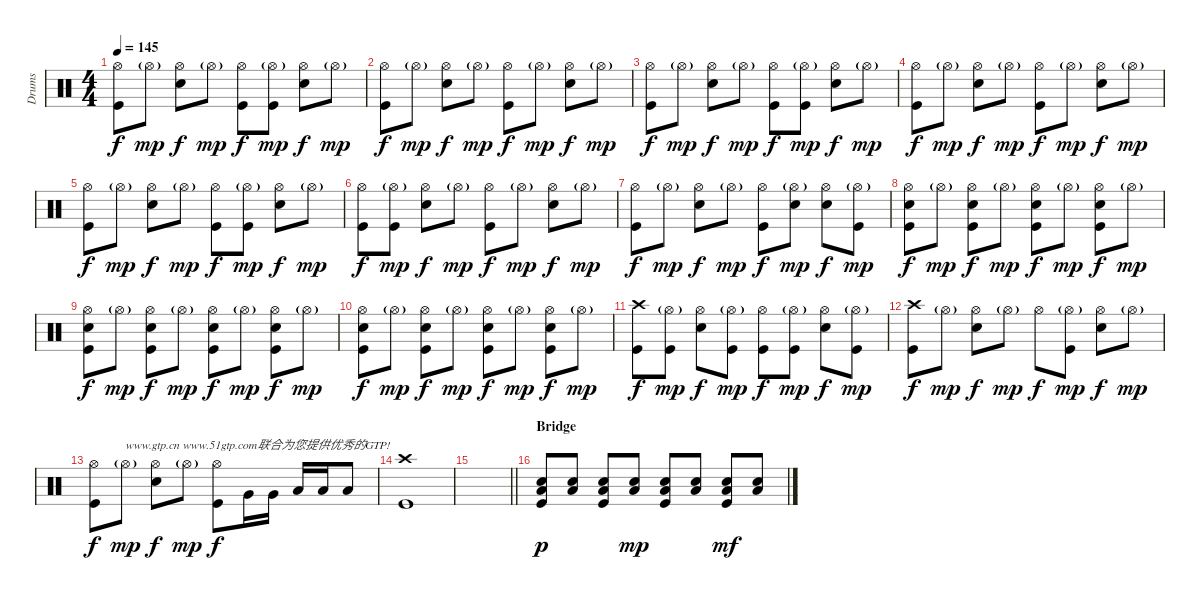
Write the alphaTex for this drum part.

\track ("Drums" "Drums") {instrument percussion}
\staff {score}
\articulation defaults
\ts (4 4)
\tempo 145
\clef neutral
\ks c
("Hi-Hat (open)" "Kick (hit)").8{dy f} "Hi-Hat (open)"{g}.8{dy mp} ("Hi-Hat (open)" "Snare (hit) 2").8{dy f} "Hi-Hat (open)"{g}.8{dy mp} ("Hi-Hat (open)" "Kick (hit)").8{dy f} ("Hi-Hat (open)"{g} "Kick (hit)").8{dy mp} ("Hi-Hat (open)" "Snare (hit) 2").8{dy f} "Hi-Hat (open)"{g}.8{dy mp} |
("Hi-Hat (open)" "Kick (hit)").8{dy f} "Hi-Hat (open)"{g}.8{dy mp} ("Hi-Hat (open)" "Snare (hit) 2").8{dy f} "Hi-Hat (open)"{g}.8{dy mp} ("Hi-Hat (open)" "Kick (hit)").8{dy f} "Hi-Hat (open)"{g}.8{dy mp} ("Hi-Hat (open)" "Snare (hit) 2").8{dy f} "Hi-Hat (open)"{g}.8{dy mp} |
("Hi-Hat (open)" "Kick (hit)").8{dy f} "Hi-Hat (open)"{g}.8{dy mp} ("Hi-Hat (open)" "Snare (hit) 2").8{dy f} "Hi-Hat (open)"{g}.8{dy mp} ("Hi-Hat (open)" "Kick (hit)").8{dy f} ("Hi-Hat (open)"{g} "Kick (hit)").8{dy mp} ("Hi-Hat (open)" "Snare (hit) 2").8{dy f} "Hi-Hat (open)"{g}.8{dy mp} |
("Hi-Hat (open)" "Kick (hit)").8{dy f} "Hi-Hat (open)"{g}.8{dy mp} ("Hi-Hat (open)" "Snare (hit) 2").8{dy f} "Hi-Hat (open)"{g}.8{dy mp} ("Hi-Hat (open)" "Kick (hit)").8{dy f} "Hi-Hat (open)"{g}.8{dy mp} ("Hi-Hat (open)" "Snare (hit) 2").8{dy f} "Hi-Hat (open)"{g}.8{dy mp} |
("Hi-Hat (open)" "Kick (hit)").8{dy f} "Hi-Hat (open)"{g}.8{dy mp} ("Hi-Hat (open)" "Snare (hit) 2").8{dy f} "Hi-Hat (open)"{g}.8{dy mp} ("Hi-Hat (open)" "Kick (hit)").8{dy f} ("Hi-Hat (open)"{g} "Kick (hit)").8{dy mp} ("Hi-Hat (open)" "Snare (hit) 2").8{dy f} "Hi-Hat (open)"{g}.8{dy mp} |
("Hi-Hat (open)" "Kick (hit)").8{dy f} ("Hi-Hat (open)"{g} "Kick (hit)").8{dy mp} ("Hi-Hat (open)" "Snare (hit) 2").8{dy f} "Hi-Hat (open)"{g}.8{dy mp} ("Hi-Hat (open)" "Kick (hit)").8{dy f} "Hi-Hat (open)"{g}.8{dy mp} ("Hi-Hat (open)" "Snare (hit) 2").8{dy f} "Hi-Hat (open)"{g}.8{dy mp} |
("Hi-Hat (open)" "Kick (hit)").8{dy f} "Hi-Hat (open)"{g}.8{dy mp} ("Hi-Hat (open)" "Snare (hit) 2").8{dy f} "Hi-Hat (open)"{g}.8{dy mp} ("Hi-Hat (open)" "Kick (hit)").8{dy f} ("Hi-Hat (open)"{g} "Snare (hit) 2").8{dy mp} ("Hi-Hat (open)" "Snare (hit) 2").8{dy f} ("Hi-Hat (open)"{g} "Kick (hit)").8{dy mp} |
("Hi-Hat (open)" "Snare (hit) 2" "Kick (hit)").8{dy f} "Hi-Hat (open)"{g}.8{dy mp} ("Hi-Hat (open)" "Snare (hit) 2" "Kick (hit)").8{dy f} "Hi-Hat (open)"{g}.8{dy mp} ("Hi-Hat (open)" "Snare (hit) 2" "Kick (hit)").8{dy f} "Hi-Hat (open)"{g}.8{dy mp} ("Hi-Hat (open)" "Snare (hit) 2" "Kick (hit)").8{dy f} "Hi-Hat (open)"{g}.8{dy mp} |
("Hi-Hat (open)" "Snare (hit) 2" "Kick (hit)").8{dy f} "Hi-Hat (open)"{g}.8{dy mp} ("Hi-Hat (open)" "Snare (hit) 2" "Kick (hit)").8{dy f} "Hi-Hat (open)"{g}.8{dy mp} ("Hi-Hat (open)" "Snare (hit) 2" "Kick (hit)").8{dy f} "Hi-Hat (open)"{g}.8{dy mp} ("Hi-Hat (open)" "Snare (hit) 2" "Kick (hit)").8{dy f} "Hi-Hat (open)"{g}.8{dy mp} |
("Hi-Hat (open)" "Snare (hit) 2" "Kick (hit)").8{dy f} "Hi-Hat (open)"{g}.8{dy mp} ("Hi-Hat (open)" "Snare (hit) 2" "Kick (hit)").8{dy f} "Hi-Hat (open)"{g}.8{dy mp} ("Hi-Hat (open)" "Snare (hit) 2" "Kick (hit)").8{dy f} "Hi-Hat (open)"{g}.8{dy mp} ("Hi-Hat (open)" "Snare (hit) 2" "Kick (hit)").8{dy f} "Hi-Hat (open)"{g}.8{dy mp} |
("Crash high (hit)" "Kick (hit)").8{dy f} ("Hi-Hat (open)"{g} "Kick (hit)").8{dy mp} ("Hi-Hat (open)" "Snare (hit) 2").8{dy f} ("Hi-Hat (open)"{g} "Kick (hit)").8{dy mp} ("Hi-Hat (open)" "Kick (hit)").8{dy f} ("Hi-Hat (open)"{g} "Kick (hit)").8{dy mp} ("Hi-Hat (open)" "Snare (hit) 2").8{dy f} ("Hi-Hat (open)"{g} "Kick (hit)").8{dy mp} |
("Crash high (hit)" "Kick (hit)").8{dy f} "Hi-Hat (open)"{g}.8{dy mp} ("Hi-Hat (open)" "Snare (hit) 2").8{dy f} "Hi-Hat (open)"{g}.8{dy mp} "Hi-Hat (open)".8{dy f} ("Hi-Hat (open)"{g} "Kick (hit)").8{dy mp} ("Hi-Hat (open)" "Snare (hit) 2").8{dy f} "Hi-Hat (open)"{g}.8{dy mp} |
("Hi-Hat (open)" "Kick (hit)").8{dy f} "Hi-Hat (open)"{g}.8{txt "www.gtp.cn www.51gtp.com联合为您提供优秀的GTP!" dy mp} ("Hi-Hat (open)" "Snare (hit) 2").8{dy f} "Hi-Hat (open)"{g}.8{dy mp} ("Hi-Hat (open)" "Kick (hit)").8{dy f} "Very Low Tom (hit)".16 "Very Low Tom (hit)".16 "Low Floor Tom (hit)".16 "Low Floor Tom (hit)".16 "Low Floor Tom (hit)".8 |
("Crash high (hit)" "Kick (hit)").1 |
\barLineRight lightlight
|
\section ("" "Bridge")
("Snare (hit) 2" "Low Floor Tom (hit)" "Kick (hit)").8{dy p} ("Snare (hit) 2" "Low Floor Tom (hit)").8 ("Snare (hit) 2" "Low Floor Tom (hit)" "Kick (hit)").8 ("Snare (hit) 2" "Low Floor Tom (hit)").8{dy mp} ("Snare (hit) 2" "Low Floor Tom (hit)" "Kick (hit)").8 ("Snare (hit) 2" "Low Floor Tom (hit)").8 ("Snare (hit) 2" "Low Floor Tom (hit)" "Kick (hit)").8{dy mf} ("Snare (hit) 2" "Low Floor Tom (hit)").8
